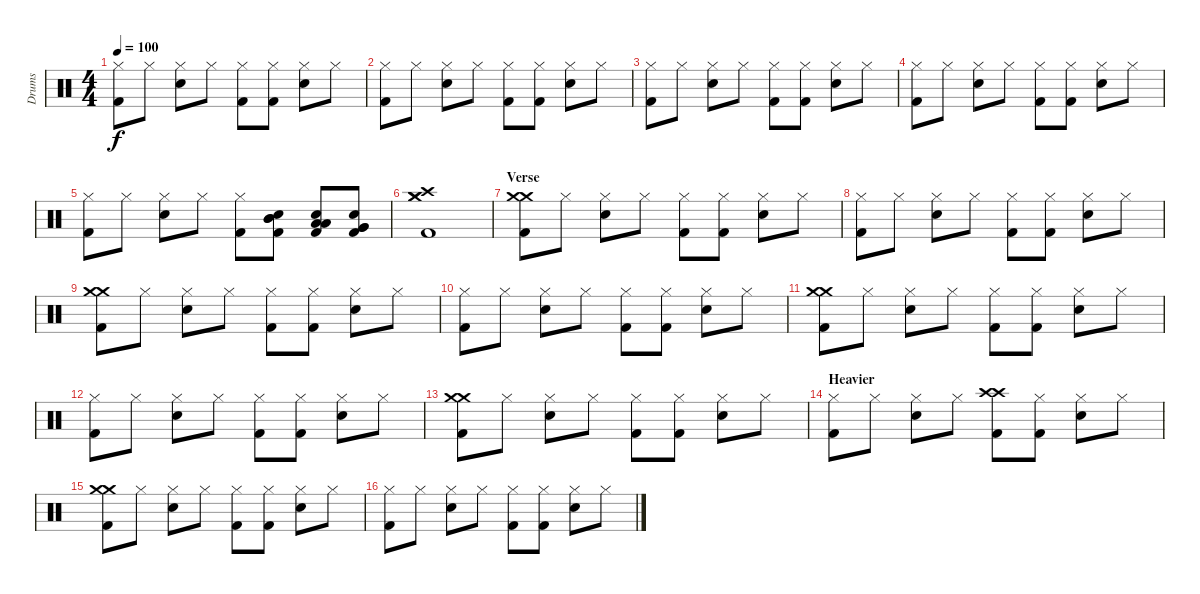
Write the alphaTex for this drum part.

\track ("Drums" "Drums") {instrument percussion}
\staff {score}
\articulation defaults
\ts (4 4)
\tempo 100
\clef neutral
\ks c
("Hi-Hat (closed)" "Kick (hit) 2").8{dy f} "Hi-Hat (closed)".8 ("Hi-Hat (closed)" "Electric Snare (hit)").8 "Hi-Hat (closed)".8 ("Hi-Hat (closed)" "Kick (hit) 2").8 ("Hi-Hat (closed)" "Kick (hit) 2").8 ("Hi-Hat (closed)" "Electric Snare (hit)").8 "Hi-Hat (closed)".8 |
("Hi-Hat (closed)" "Kick (hit) 2").8 "Hi-Hat (closed)".8 ("Hi-Hat (closed)" "Electric Snare (hit)").8 "Hi-Hat (closed)".8 ("Hi-Hat (closed)" "Kick (hit) 2").8 ("Hi-Hat (closed)" "Kick (hit) 2").8 ("Hi-Hat (closed)" "Electric Snare (hit)").8 "Hi-Hat (closed)".8 |
("Hi-Hat (closed)" "Kick (hit) 2").8 "Hi-Hat (closed)".8 ("Hi-Hat (closed)" "Electric Snare (hit)").8 "Hi-Hat (closed)".8 ("Hi-Hat (closed)" "Kick (hit) 2").8 ("Hi-Hat (closed)" "Kick (hit) 2").8 ("Hi-Hat (closed)" "Electric Snare (hit)").8 "Hi-Hat (closed)".8 |
("Hi-Hat (closed)" "Kick (hit) 2").8 "Hi-Hat (closed)".8 ("Hi-Hat (closed)" "Electric Snare (hit)").8 "Hi-Hat (closed)".8 ("Hi-Hat (closed)" "Kick (hit) 2").8 ("Hi-Hat (closed)" "Kick (hit) 2").8 ("Hi-Hat (closed)" "Electric Snare (hit)").8 "Hi-Hat (closed)".8 |
("Hi-Hat (closed)" "Kick (hit) 2").8 "Hi-Hat (closed)".8 ("Hi-Hat (closed)" "Electric Snare (hit)").8 "Hi-Hat (closed)".8 ("Hi-Hat (closed)" "Kick (hit) 2").8 ("Mid Tom (hit)" "Mid Tom (hit)" "Electric Snare (hit)" "Kick (hit) 2").8 ("Low Tom (hit)" "Low Tom (hit)" "Electric Snare (hit)" "Kick (hit) 2").8 ("Electric Snare (hit)" "Very Low Tom (hit)" "Very Low Tom (hit)" "Kick (hit) 2").8 |
("Crash high (hit)" "Crash medium (hit)" "Crash medium (hit)" "Kick (hit) 2").1 |
\section ("" "Verse")
("Crash medium (hit)" "Crash medium (hit)" "Kick (hit) 2").8 "Hi-Hat (closed)".8 ("Hi-Hat (closed)" "Electric Snare (hit)").8 "Hi-Hat (closed)".8 ("Hi-Hat (closed)" "Kick (hit) 2").8 ("Hi-Hat (closed)" "Kick (hit) 2").8 ("Hi-Hat (closed)" "Electric Snare (hit)").8 "Hi-Hat (closed)".8 |
("Hi-Hat (closed)" "Kick (hit) 2").8 "Hi-Hat (closed)".8 ("Hi-Hat (closed)" "Electric Snare (hit)").8 "Hi-Hat (closed)".8 ("Hi-Hat (closed)" "Kick (hit) 2").8 ("Hi-Hat (closed)" "Kick (hit) 2").8 ("Hi-Hat (closed)" "Electric Snare (hit)").8 "Hi-Hat (closed)".8 |
("Crash medium (hit)" "Crash medium (hit)" "Kick (hit) 2").8 "Hi-Hat (closed)".8 ("Hi-Hat (closed)" "Electric Snare (hit)").8 "Hi-Hat (closed)".8 ("Hi-Hat (closed)" "Kick (hit) 2").8 ("Hi-Hat (closed)" "Kick (hit) 2").8 ("Hi-Hat (closed)" "Electric Snare (hit)").8 "Hi-Hat (closed)".8 |
("Hi-Hat (closed)" "Kick (hit) 2").8 "Hi-Hat (closed)".8 ("Hi-Hat (closed)" "Electric Snare (hit)").8 "Hi-Hat (closed)".8 ("Hi-Hat (closed)" "Kick (hit) 2").8 ("Hi-Hat (closed)" "Kick (hit) 2").8 ("Hi-Hat (closed)" "Electric Snare (hit)").8 "Hi-Hat (closed)".8 |
("Crash medium (hit)" "Crash medium (hit)" "Kick (hit) 2").8 "Hi-Hat (closed)".8 ("Hi-Hat (closed)" "Electric Snare (hit)").8 "Hi-Hat (closed)".8 ("Hi-Hat (closed)" "Kick (hit) 2").8 ("Hi-Hat (closed)" "Kick (hit) 2").8 ("Hi-Hat (closed)" "Electric Snare (hit)").8 "Hi-Hat (closed)".8 |
("Hi-Hat (closed)" "Kick (hit) 2").8 "Hi-Hat (closed)".8 ("Hi-Hat (closed)" "Electric Snare (hit)").8 "Hi-Hat (closed)".8 ("Hi-Hat (closed)" "Kick (hit) 2").8 ("Hi-Hat (closed)" "Kick (hit) 2").8 ("Hi-Hat (closed)" "Electric Snare (hit)").8 "Hi-Hat (closed)".8 |
("Crash medium (hit)" "Crash medium (hit)" "Kick (hit) 2").8 "Hi-Hat (closed)".8 ("Hi-Hat (closed)" "Electric Snare (hit)").8 "Hi-Hat (closed)".8 ("Hi-Hat (closed)" "Kick (hit) 2").8 ("Hi-Hat (closed)" "Kick (hit) 2").8 ("Hi-Hat (closed)" "Electric Snare (hit)").8 "Hi-Hat (closed)".8 |
\section ("" "Heavier")
("Hi-Hat (closed)" "Kick (hit) 2").8 "Hi-Hat (closed)".8 ("Hi-Hat (closed)" "Electric Snare (hit)").8 "Hi-Hat (closed)".8 ("Crash high (hit)" "Crash high (hit)" "Kick (hit) 2").8 ("Hi-Hat (closed)" "Kick (hit) 2").8 ("Hi-Hat (closed)" "Electric Snare (hit)").8 "Hi-Hat (closed)".8 |
("Crash medium (hit)" "Crash medium (hit)" "Kick (hit) 2").8 "Hi-Hat (closed)".8 ("Hi-Hat (closed)" "Electric Snare (hit)").8 "Hi-Hat (closed)".8 ("Hi-Hat (closed)" "Kick (hit) 2").8 ("Hi-Hat (closed)" "Kick (hit) 2").8 ("Hi-Hat (closed)" "Electric Snare (hit)").8 "Hi-Hat (closed)".8 |
("Hi-Hat (closed)" "Kick (hit) 2").8 "Hi-Hat (closed)".8 ("Hi-Hat (closed)" "Electric Snare (hit)").8 "Hi-Hat (closed)".8 ("Hi-Hat (closed)" "Kick (hit) 2").8 ("Hi-Hat (closed)" "Kick (hit) 2").8 ("Hi-Hat (closed)" "Electric Snare (hit)").8 "Hi-Hat (closed)".8
